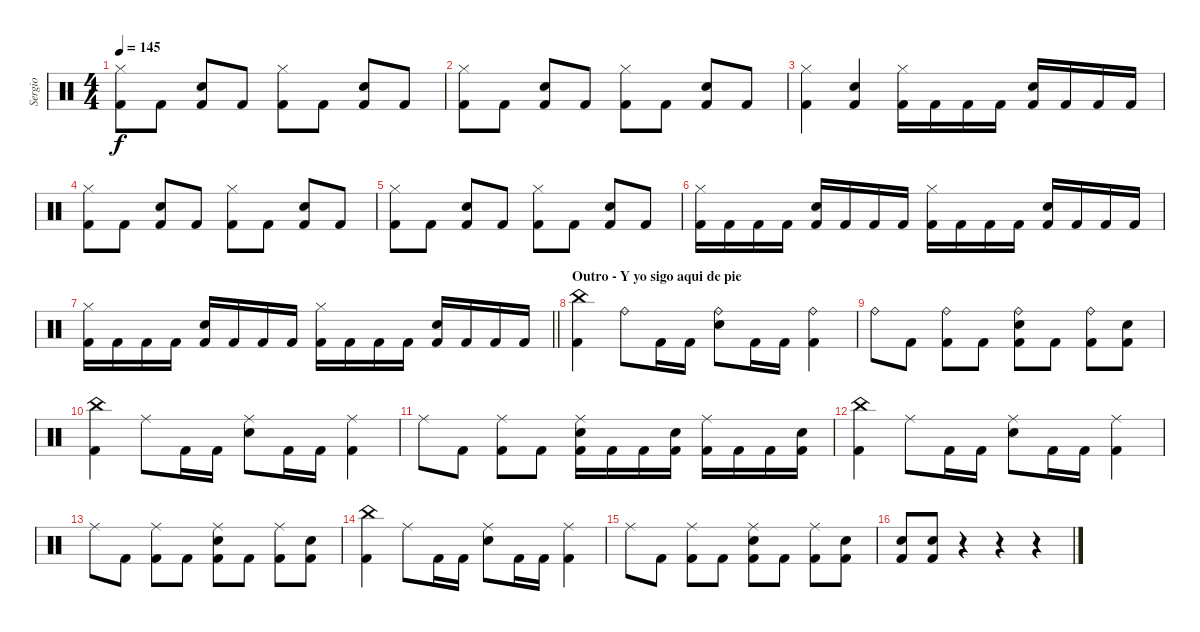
\track ("Sergio" "Sergio") {instrument percussion}
\staff {score}
\articulation defaults
\ts (4 4)
\tempo 145
\clef neutral
\ks c
("Hi-Hat (closed)" "Kick (hit) 2").8{dy f} "Kick (hit) 2".8 ("Electric Snare (hit)" "Kick (hit) 2").8 "Kick (hit) 2".8 ("Hi-Hat (closed)" "Kick (hit) 2").8 "Kick (hit) 2".8 ("Electric Snare (hit)" "Kick (hit) 2").8 "Kick (hit) 2".8 |
("Hi-Hat (closed)" "Kick (hit) 2").8 "Kick (hit) 2".8 ("Electric Snare (hit)" "Kick (hit) 2").8 "Kick (hit) 2".8 ("Hi-Hat (closed)" "Kick (hit) 2").8 "Kick (hit) 2".8 ("Electric Snare (hit)" "Kick (hit) 2").8 "Kick (hit) 2".8 |
("Hi-Hat (closed)" "Kick (hit) 2").4 ("Electric Snare (hit)" "Kick (hit) 2").4 ("Hi-Hat (closed)" "Kick (hit) 2").16 "Kick (hit) 2".16 "Kick (hit) 2".16 "Kick (hit) 2".16 ("Electric Snare (hit)" "Kick (hit) 2").16 "Kick (hit) 2".16 "Kick (hit) 2".16 "Kick (hit) 2".16 |
("Hi-Hat (closed)" "Kick (hit) 2").8 "Kick (hit) 2".8 ("Electric Snare (hit)" "Kick (hit) 2").8 "Kick (hit) 2".8 ("Hi-Hat (closed)" "Kick (hit) 2").8 "Kick (hit) 2".8 ("Electric Snare (hit)" "Kick (hit) 2").8 "Kick (hit) 2".8 |
("Hi-Hat (closed)" "Kick (hit) 2").8 "Kick (hit) 2".8 ("Electric Snare (hit)" "Kick (hit) 2").8 "Kick (hit) 2".8 ("Hi-Hat (closed)" "Kick (hit) 2").8 "Kick (hit) 2".8 ("Electric Snare (hit)" "Kick (hit) 2").8 "Kick (hit) 2".8 |
("Hi-Hat (closed)" "Kick (hit) 2").16 "Kick (hit) 2".16 "Kick (hit) 2".16 "Kick (hit) 2".16 ("Electric Snare (hit)" "Kick (hit) 2").16 "Kick (hit) 2".16 "Kick (hit) 2".16 "Kick (hit) 2".16 ("Hi-Hat (closed)" "Kick (hit) 2").16 "Kick (hit) 2".16 "Kick (hit) 2".16 "Kick (hit) 2".16 ("Electric Snare (hit)" "Kick (hit) 2").16 "Kick (hit) 2".16 "Kick (hit) 2".16 "Kick (hit) 2".16 |
\barLineRight lightlight
("Hi-Hat (closed)" "Kick (hit) 2").16 "Kick (hit) 2".16 "Kick (hit) 2".16 "Kick (hit) 2".16 ("Electric Snare (hit)" "Kick (hit) 2").16 "Kick (hit) 2".16 "Kick (hit) 2".16 "Kick (hit) 2".16 ("Hi-Hat (closed)" "Kick (hit) 2").16 "Kick (hit) 2".16 "Kick (hit) 2".16 "Kick (hit) 2".16 ("Electric Snare (hit)" "Kick (hit) 2").16 "Kick (hit) 2".16 "Kick (hit) 2".16 "Kick (hit) 2".16 |
\section ("" "Outro - Y yo sigo aqui de pie")
("China (hit)" "Kick (hit) 2").4 "Ride (bell)".8 "Kick (hit) 2".16 "Kick (hit) 2".16 ("Ride (bell)" "Electric Snare (hit)").8 "Kick (hit) 2".16 "Kick (hit) 2".16 ("Ride (bell)" "Kick (hit) 2").4 |
"Ride (bell)".8 "Kick (hit) 2".8 ("Ride (bell)" "Kick (hit) 2").8 "Kick (hit) 2".8 ("Ride (bell)" "Electric Snare (hit)" "Kick (hit) 2").8 "Kick (hit) 2".8 ("Ride (bell)" "Kick (hit) 2").8 ("Electric Snare (hit)" "Kick (hit) 2").8 |
("China (hit)" "Kick (hit) 2").4 "Ride (middle)".8 "Kick (hit) 2".16 "Kick (hit) 2".16 ("Ride (middle)" "Electric Snare (hit)").8 "Kick (hit) 2".16 "Kick (hit) 2".16 ("Ride (middle)" "Kick (hit) 2").4 |
"Ride (middle)".8 "Kick (hit) 2".8 ("Ride (middle)" "Kick (hit) 2").8 "Kick (hit) 2".8 ("Ride (middle)" "Electric Snare (hit)" "Kick (hit) 2").16 "Kick (hit) 2".16 "Kick (hit) 2".16 ("Electric Snare (hit)" "Kick (hit) 2").16 ("Ride (middle)" "Kick (hit) 2").16 "Kick (hit) 2".16 "Kick (hit) 2".16 ("Electric Snare (hit)" "Kick (hit) 2").16 |
("China (hit)" "Kick (hit) 2").4 "Ride (middle)".8 "Kick (hit) 2".16 "Kick (hit) 2".16 ("Ride (middle)" "Electric Snare (hit)").8 "Kick (hit) 2".16 "Kick (hit) 2".16 ("Ride (middle)" "Kick (hit) 2").4 |
"Ride (middle)".8 "Kick (hit) 2".8 ("Ride (middle)" "Kick (hit) 2").8 "Kick (hit) 2".8 ("Ride (middle)" "Electric Snare (hit)" "Kick (hit) 2").8 "Kick (hit) 2".8 ("Ride (middle)" "Kick (hit) 2").8 ("Electric Snare (hit)" "Kick (hit) 2").8 |
("China (hit)" "Kick (hit) 2").4 "Ride (middle)".8 "Kick (hit) 2".16 "Kick (hit) 2".16 ("Ride (middle)" "Electric Snare (hit)").8 "Kick (hit) 2".16 "Kick (hit) 2".16 ("Ride (middle)" "Kick (hit) 2").4 |
"Ride (middle)".8 "Kick (hit) 2".8 ("Ride (middle)" "Kick (hit) 2").8 "Kick (hit) 2".8 ("Ride (middle)" "Electric Snare (hit)" "Kick (hit) 2").8 "Kick (hit) 2".8 ("Ride (middle)" "Kick (hit) 2").8 ("Electric Snare (hit)" "Kick (hit) 2").8 |
("Electric Snare (hit)" "Kick (hit) 2").8 ("Electric Snare (hit)" "Kick (hit) 2").8 r.4 r.4 r.4
